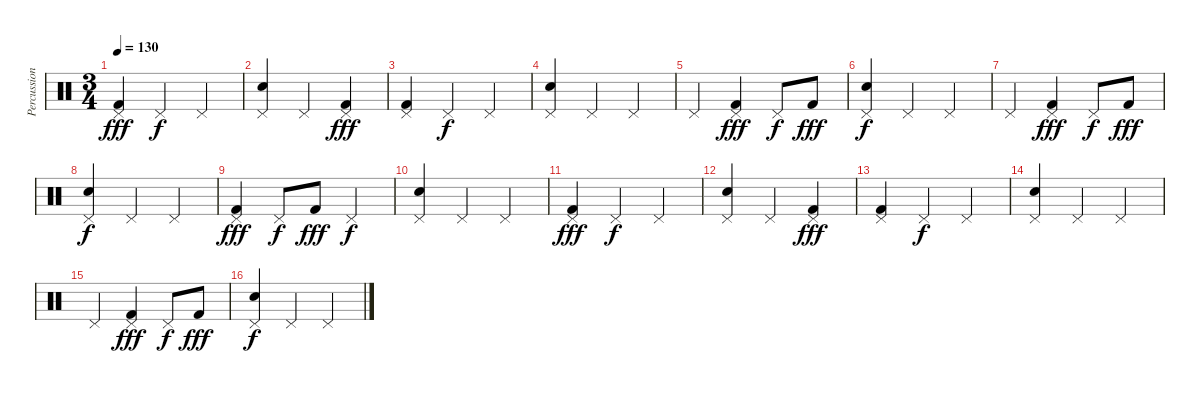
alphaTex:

\track ("Percussion" "Percussion") {instrument percussion}
\staff {score}
\articulation defaults
\ts (3 4)
\tempo 130
\clef neutral
\ks c
("Pedal Hi-Hat (hit)" "Kick (hit) 2").4{dy fff} "Pedal Hi-Hat (hit)".4{dy f} "Pedal Hi-Hat (hit)".4 |
("Pedal Hi-Hat (hit)" "Electric Snare (hit)").4 "Pedal Hi-Hat (hit)".4 ("Pedal Hi-Hat (hit)" "Kick (hit) 2").4{dy fff} |
("Pedal Hi-Hat (hit)" "Kick (hit) 2").4 "Pedal Hi-Hat (hit)".4{dy f} "Pedal Hi-Hat (hit)".4 |
("Pedal Hi-Hat (hit)" "Electric Snare (hit)").4 "Pedal Hi-Hat (hit)".4 "Pedal Hi-Hat (hit)".4 |
"Pedal Hi-Hat (hit)".4 ("Pedal Hi-Hat (hit)" "Kick (hit) 2").4{dy fff} "Pedal Hi-Hat (hit)".8{dy f} "Kick (hit) 2".8{dy fff} |
("Pedal Hi-Hat (hit)" "Electric Snare (hit)").4{dy f} "Pedal Hi-Hat (hit)".4 "Pedal Hi-Hat (hit)".4 |
"Pedal Hi-Hat (hit)".4 ("Pedal Hi-Hat (hit)" "Kick (hit) 2").4{dy fff} "Pedal Hi-Hat (hit)".8{dy f} "Kick (hit) 2".8{dy fff} |
("Pedal Hi-Hat (hit)" "Electric Snare (hit)").4{dy f} "Pedal Hi-Hat (hit)".4 "Pedal Hi-Hat (hit)".4 |
("Pedal Hi-Hat (hit)" "Kick (hit) 2").4{dy fff} "Pedal Hi-Hat (hit)".8{dy f} "Kick (hit) 2".8{dy fff} "Pedal Hi-Hat (hit)".4{dy f} |
("Pedal Hi-Hat (hit)" "Electric Snare (hit)").4 "Pedal Hi-Hat (hit)".4 "Pedal Hi-Hat (hit)".4 |
("Pedal Hi-Hat (hit)" "Kick (hit) 2").4{dy fff} "Pedal Hi-Hat (hit)".4{dy f} "Pedal Hi-Hat (hit)".4 |
("Pedal Hi-Hat (hit)" "Electric Snare (hit)").4 "Pedal Hi-Hat (hit)".4 ("Pedal Hi-Hat (hit)" "Kick (hit) 2").4{dy fff} |
("Pedal Hi-Hat (hit)" "Kick (hit) 2").4 "Pedal Hi-Hat (hit)".4{dy f} "Pedal Hi-Hat (hit)".4 |
("Pedal Hi-Hat (hit)" "Electric Snare (hit)").4 "Pedal Hi-Hat (hit)".4 "Pedal Hi-Hat (hit)".4 |
"Pedal Hi-Hat (hit)".4 ("Pedal Hi-Hat (hit)" "Kick (hit) 2").4{dy fff} "Pedal Hi-Hat (hit)".8{dy f} "Kick (hit) 2".8{dy fff} |
("Pedal Hi-Hat (hit)" "Electric Snare (hit)").4{dy f} "Pedal Hi-Hat (hit)".4 "Pedal Hi-Hat (hit)".4
